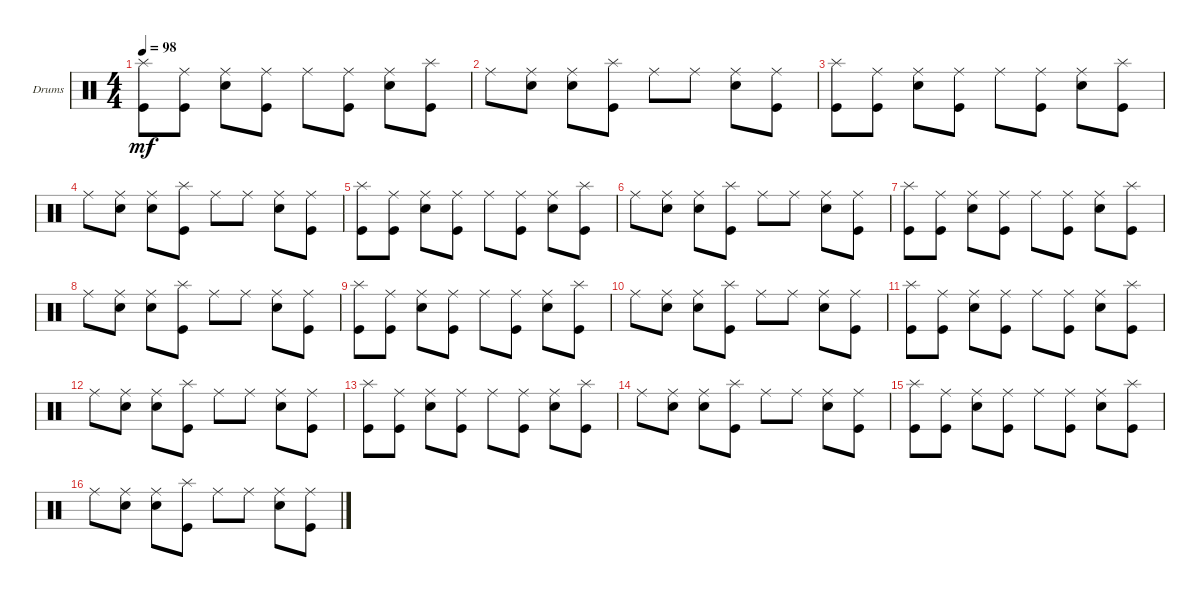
\defaultSystemsLayout 4
\bracketExtendMode groupsimilarinstruments
\firstSystemTrackNameOrientation horizontal
\otherSystemsTrackNameOrientation horizontal
\track ("Frank Fontsere" "Drums") {instrument percussion}
\staff {score}
\articulation defaults
\ts (4 4)
\tempo 98
\clef neutral
\ks c
("Kick (hit)" "Splash (hit)").8{dy mf} ("Ride (middle)" "Kick (hit)").8 ("Ride (middle)" "Snare (hit) 2").8 ("Kick (hit)" "Ride (middle)").8 "Ride (middle)".8 ("Ride (middle)" "Kick (hit)").8 ("Ride (middle)" "Snare (hit) 2").8 ("Kick (hit)" "Splash (hit)").8 |
"Ride (middle)".8 ("Snare (hit) 2" "Ride (middle)").8 ("Ride (middle)" "Snare (hit) 2").8 ("Splash (hit)" "Kick (hit)").8 "Ride (middle)".8 "Ride (middle)".8 ("Snare (hit) 2" "Ride (middle)").8 ("Kick (hit)" "Ride (middle)").8 |
("Kick (hit)" "Splash (hit)").8 ("Ride (middle)" "Kick (hit)").8 ("Ride (middle)" "Snare (hit) 2").8 ("Kick (hit)" "Ride (middle)").8 "Ride (middle)".8 ("Ride (middle)" "Kick (hit)").8 ("Ride (middle)" "Snare (hit) 2").8 ("Kick (hit)" "Splash (hit)").8 |
"Ride (middle)".8 ("Snare (hit) 2" "Ride (middle)").8 ("Ride (middle)" "Snare (hit) 2").8 ("Splash (hit)" "Kick (hit)").8 "Ride (middle)".8 "Ride (middle)".8 ("Snare (hit) 2" "Ride (middle)").8 ("Kick (hit)" "Ride (middle)").8 |
("Kick (hit)" "Splash (hit)").8 ("Ride (middle)" "Kick (hit)").8 ("Ride (middle)" "Snare (hit) 2").8 ("Kick (hit)" "Ride (middle)").8 "Ride (middle)".8 ("Ride (middle)" "Kick (hit)").8 ("Ride (middle)" "Snare (hit) 2").8 ("Kick (hit)" "Splash (hit)").8 |
"Ride (middle)".8 ("Snare (hit) 2" "Ride (middle)").8 ("Ride (middle)" "Snare (hit) 2").8 ("Splash (hit)" "Kick (hit)").8 "Ride (middle)".8 "Ride (middle)".8 ("Snare (hit) 2" "Ride (middle)").8 ("Kick (hit)" "Ride (middle)").8 |
("Kick (hit)" "Splash (hit)").8 ("Ride (middle)" "Kick (hit)").8 ("Ride (middle)" "Snare (hit) 2").8 ("Kick (hit)" "Ride (middle)").8 "Ride (middle)".8 ("Ride (middle)" "Kick (hit)").8 ("Ride (middle)" "Snare (hit) 2").8 ("Kick (hit)" "Splash (hit)").8 |
"Ride (middle)".8 ("Snare (hit) 2" "Ride (middle)").8 ("Ride (middle)" "Snare (hit) 2").8 ("Splash (hit)" "Kick (hit)").8 "Ride (middle)".8 "Ride (middle)".8 ("Snare (hit) 2" "Ride (middle)").8 ("Kick (hit)" "Ride (middle)").8 |
("Kick (hit)" "Splash (hit)").8 ("Ride (middle)" "Kick (hit)").8 ("Ride (middle)" "Snare (hit) 2").8 ("Kick (hit)" "Ride (middle)").8 "Ride (middle)".8 ("Ride (middle)" "Kick (hit)").8 ("Ride (middle)" "Snare (hit) 2").8 ("Kick (hit)" "Splash (hit)").8 |
"Ride (middle)".8 ("Snare (hit) 2" "Ride (middle)").8 ("Ride (middle)" "Snare (hit) 2").8 ("Splash (hit)" "Kick (hit)").8 "Ride (middle)".8 "Ride (middle)".8 ("Snare (hit) 2" "Ride (middle)").8 ("Kick (hit)" "Ride (middle)").8 |
("Kick (hit)" "Splash (hit)").8 ("Ride (middle)" "Kick (hit)").8 ("Ride (middle)" "Snare (hit) 2").8 ("Kick (hit)" "Ride (middle)").8 "Ride (middle)".8 ("Ride (middle)" "Kick (hit)").8 ("Ride (middle)" "Snare (hit) 2").8 ("Kick (hit)" "Splash (hit)").8 |
"Ride (middle)".8 ("Snare (hit) 2" "Ride (middle)").8 ("Ride (middle)" "Snare (hit) 2").8 ("Splash (hit)" "Kick (hit)").8 "Ride (middle)".8 "Ride (middle)".8 ("Snare (hit) 2" "Ride (middle)").8 ("Kick (hit)" "Ride (middle)").8 |
("Kick (hit)" "Splash (hit)").8 ("Ride (middle)" "Kick (hit)").8 ("Ride (middle)" "Snare (hit) 2").8 ("Kick (hit)" "Ride (middle)").8 "Ride (middle)".8 ("Ride (middle)" "Kick (hit)").8 ("Ride (middle)" "Snare (hit) 2").8 ("Kick (hit)" "Splash (hit)").8 |
"Ride (middle)".8 ("Snare (hit) 2" "Ride (middle)").8 ("Ride (middle)" "Snare (hit) 2").8 ("Splash (hit)" "Kick (hit)").8 "Ride (middle)".8 "Ride (middle)".8 ("Snare (hit) 2" "Ride (middle)").8 ("Kick (hit)" "Ride (middle)").8 |
("Kick (hit)" "Splash (hit)").8 ("Ride (middle)" "Kick (hit)").8 ("Ride (middle)" "Snare (hit) 2").8 ("Kick (hit)" "Ride (middle)").8 "Ride (middle)".8 ("Ride (middle)" "Kick (hit)").8 ("Ride (middle)" "Snare (hit) 2").8 ("Kick (hit)" "Splash (hit)").8 |
"Ride (middle)".8 ("Snare (hit) 2" "Ride (middle)").8 ("Ride (middle)" "Snare (hit) 2").8 ("Splash (hit)" "Kick (hit)").8 "Ride (middle)".8 "Ride (middle)".8 ("Snare (hit) 2" "Ride (middle)").8 ("Kick (hit)" "Ride (middle)").8
